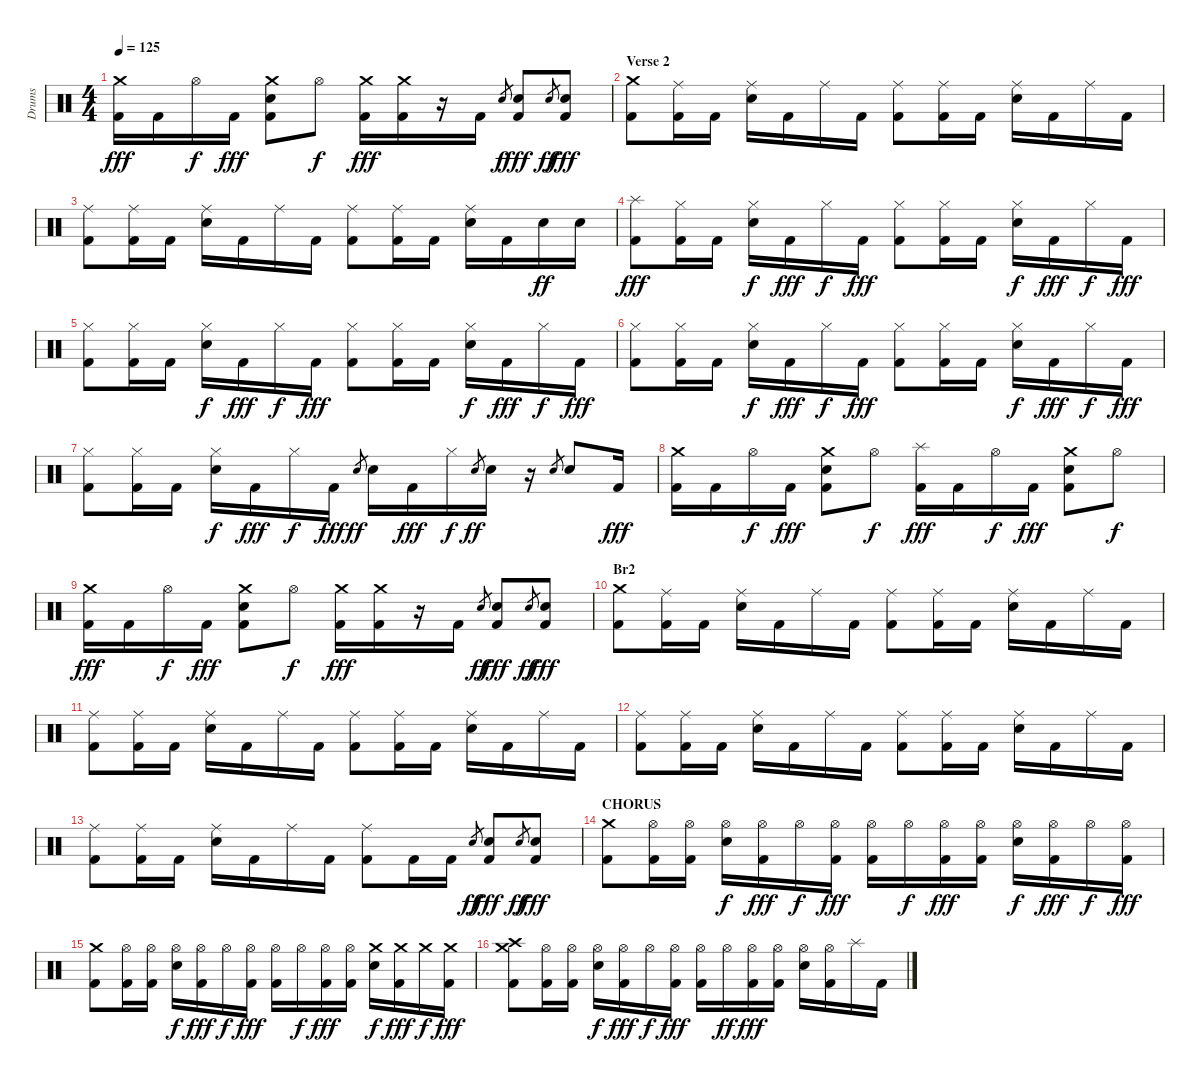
\track ("Drums" "Drums") {instrument percussion}
\staff {score}
\articulation defaults
\ts (4 4)
\tempo 125
\clef neutral
\ks c
("Crash medium (hit)" "Kick (hit) 2").16{dy fff} "Kick (hit) 2".16 "Hi-Hat (open)".16{dy f} "Kick (hit) 2".16{dy fff} ("Crash medium (hit)" "Electric Snare (hit)" "Kick (hit) 2").8 "Hi-Hat (open)".8{dy f} ("Crash medium (hit)" "Kick (hit) 2").16{dy fff} ("Crash medium (hit)" "Kick (hit) 2").16 r.16 "Kick (hit) 2".16 "Electric Snare (hit)".8{gr dy f} ("Electric Snare (hit)" "Kick (hit) 2").8{dy fff} "Electric Snare (hit)".8{gr dy ff} ("Electric Snare (hit)" "Kick (hit) 2").8{dy fff} |
\section ("" "Verse 2")
("Crash medium (hit)" "Kick (hit) 2").8 ("Ride (middle)" "Kick (hit) 2").16 "Kick (hit) 2".16 ("Ride (middle)" "Electric Snare (hit)").16 "Kick (hit) 2".16 "Ride (middle)".16 "Kick (hit) 2".16 ("Ride (middle)" "Kick (hit) 2").8 ("Ride (middle)" "Kick (hit) 2").16 "Kick (hit) 2".16 ("Ride (middle)" "Electric Snare (hit)").16 "Kick (hit) 2".16 "Ride (middle)".16 "Kick (hit) 2".16 |
("Ride (middle)" "Kick (hit) 2").8 ("Ride (middle)" "Kick (hit) 2").16 "Kick (hit) 2".16 ("Ride (middle)" "Electric Snare (hit)").16 "Kick (hit) 2".16 "Ride (middle)".16 "Kick (hit) 2".16 ("Ride (middle)" "Kick (hit) 2").8 ("Ride (middle)" "Kick (hit) 2").16 "Kick (hit) 2".16 ("Ride (middle)" "Electric Snare (hit)").16 "Kick (hit) 2".16 "Electric Snare (hit)".16{dy ff} "Electric Snare (hit)".16 |
("Splash (hit)" "Kick (hit) 2").8{dy fff} ("Hi-Hat (closed)" "Kick (hit) 2").16 "Kick (hit) 2".16 ("Hi-Hat (closed)" "Electric Snare (hit)").16{dy f} "Kick (hit) 2".16{dy fff} "Hi-Hat (closed)".16{dy f} "Kick (hit) 2".16{dy fff} ("Hi-Hat (closed)" "Kick (hit) 2").8 ("Hi-Hat (closed)" "Kick (hit) 2").16 "Kick (hit) 2".16 ("Hi-Hat (closed)" "Electric Snare (hit)").16{dy f} "Kick (hit) 2".16{dy fff} "Hi-Hat (closed)".16{dy f} "Kick (hit) 2".16{dy fff} |
("Hi-Hat (closed)" "Kick (hit) 2").8 ("Hi-Hat (closed)" "Kick (hit) 2").16 "Kick (hit) 2".16 ("Hi-Hat (closed)" "Electric Snare (hit)").16{dy f} "Kick (hit) 2".16{dy fff} "Hi-Hat (closed)".16{dy f} "Kick (hit) 2".16{dy fff} ("Hi-Hat (closed)" "Kick (hit) 2").8 ("Hi-Hat (closed)" "Kick (hit) 2").16 "Kick (hit) 2".16 ("Hi-Hat (closed)" "Electric Snare (hit)").16{dy f} "Kick (hit) 2".16{dy fff} "Hi-Hat (closed)".16{dy f} "Kick (hit) 2".16{dy fff} |
("Hi-Hat (closed)" "Kick (hit) 2").8 ("Hi-Hat (closed)" "Kick (hit) 2").16 "Kick (hit) 2".16 ("Hi-Hat (closed)" "Electric Snare (hit)").16{dy f} "Kick (hit) 2".16{dy fff} "Hi-Hat (closed)".16{dy f} "Kick (hit) 2".16{dy fff} ("Hi-Hat (closed)" "Kick (hit) 2").8 ("Hi-Hat (closed)" "Kick (hit) 2").16 "Kick (hit) 2".16 ("Hi-Hat (closed)" "Electric Snare (hit)").16{dy f} "Kick (hit) 2".16{dy fff} "Hi-Hat (closed)".16{dy f} "Kick (hit) 2".16{dy fff} |
("Hi-Hat (closed)" "Kick (hit) 2").8 ("Hi-Hat (closed)" "Kick (hit) 2").16 "Kick (hit) 2".16 ("Hi-Hat (closed)" "Electric Snare (hit)").16{dy f} "Kick (hit) 2".16{dy fff} "Hi-Hat (closed)".16{dy f} "Kick (hit) 2".16{dy fff} "Electric Snare (hit)".8{gr dy ff} "Electric Snare (hit)".16 "Kick (hit) 2".16{dy fff} "Hi-Hat (closed)".16{dy f} "Electric Snare (hit)".8{gr dy ff} "Electric Snare (hit)".16 r.16 "Electric Snare (hit)".8{gr} "Electric Snare (hit)".8 "Kick (hit) 2".16{dy fff} |
("Crash medium (hit)" "Kick (hit) 2").16 "Kick (hit) 2".16 "Hi-Hat (open)".16{dy f} "Kick (hit) 2".16{dy fff} ("Crash medium (hit)" "Electric Snare (hit)" "Kick (hit) 2").8 "Hi-Hat (open)".8{dy f} ("Splash (hit)" "Kick (hit) 2").16{dy fff} "Kick (hit) 2".16 "Hi-Hat (open)".16{dy f} "Kick (hit) 2".16{dy fff} ("Crash medium (hit)" "Electric Snare (hit)" "Kick (hit) 2").8 "Hi-Hat (open)".8{dy f} |
("Crash medium (hit)" "Kick (hit) 2").16{dy fff} "Kick (hit) 2".16 "Hi-Hat (open)".16{dy f} "Kick (hit) 2".16{dy fff} ("Crash medium (hit)" "Electric Snare (hit)" "Kick (hit) 2").8 "Hi-Hat (open)".8{dy f} ("Crash medium (hit)" "Kick (hit) 2").16{dy fff} ("Crash medium (hit)" "Kick (hit) 2").16 r.16 "Kick (hit) 2".16 "Electric Snare (hit)".8{gr dy ff} ("Electric Snare (hit)" "Kick (hit) 2").8{dy fff} "Electric Snare (hit)".8{gr dy ff} ("Electric Snare (hit)" "Kick (hit) 2").8{dy fff} |
\section ("" "Br2")
("Crash medium (hit)" "Kick (hit) 2").8 ("Ride (middle)" "Kick (hit) 2").16 "Kick (hit) 2".16 ("Ride (middle)" "Electric Snare (hit)").16 "Kick (hit) 2".16 "Ride (middle)".16 "Kick (hit) 2".16 ("Ride (middle)" "Kick (hit) 2").8 ("Ride (middle)" "Kick (hit) 2").16 "Kick (hit) 2".16 ("Ride (middle)" "Electric Snare (hit)").16 "Kick (hit) 2".16 "Ride (middle)".16 "Kick (hit) 2".16 |
("Ride (middle)" "Kick (hit) 2").8 ("Ride (middle)" "Kick (hit) 2").16 "Kick (hit) 2".16 ("Ride (middle)" "Electric Snare (hit)").16 "Kick (hit) 2".16 "Ride (middle)".16 "Kick (hit) 2".16 ("Ride (middle)" "Kick (hit) 2").8 ("Ride (middle)" "Kick (hit) 2").16 "Kick (hit) 2".16 ("Ride (middle)" "Electric Snare (hit)").16 "Kick (hit) 2".16 "Ride (middle)".16 "Kick (hit) 2".16 |
("Ride (middle)" "Kick (hit) 2").8 ("Ride (middle)" "Kick (hit) 2").16 "Kick (hit) 2".16 ("Ride (middle)" "Electric Snare (hit)").16 "Kick (hit) 2".16 "Ride (middle)".16 "Kick (hit) 2".16 ("Ride (middle)" "Kick (hit) 2").8 ("Ride (middle)" "Kick (hit) 2").16 "Kick (hit) 2".16 ("Ride (middle)" "Electric Snare (hit)").16 "Kick (hit) 2".16 "Ride (middle)".16 "Kick (hit) 2".16 |
("Ride (middle)" "Kick (hit) 2").8 ("Ride (middle)" "Kick (hit) 2").16 "Kick (hit) 2".16 ("Ride (middle)" "Electric Snare (hit)").16 "Kick (hit) 2".16 "Ride (middle)".16 "Kick (hit) 2".16 ("Ride (middle)" "Kick (hit) 2").8 "Kick (hit) 2".16 "Kick (hit) 2".16 "Electric Snare (hit)".8{gr dy ff} ("Electric Snare (hit)" "Kick (hit) 2").8{dy fff} "Electric Snare (hit)".8{gr dy ff} ("Electric Snare (hit)" "Kick (hit) 2").8{dy fff} |
\section ("" "CHORUS")
("Crash medium (hit)" "Kick (hit) 2").8 ("Hi-Hat (open)" "Kick (hit) 2").16 ("Hi-Hat (open)" "Kick (hit) 2").16 ("Hi-Hat (open)" "Electric Snare (hit)").16{dy f} ("Hi-Hat (open)" "Kick (hit) 2").16{dy fff} "Hi-Hat (open)".16{dy f} ("Hi-Hat (open)" "Kick (hit) 2").16{dy fff} ("Hi-Hat (open)" "Kick (hit) 2").16 "Hi-Hat (open)".16{dy f} ("Hi-Hat (open)" "Kick (hit) 2").16{dy fff} ("Hi-Hat (open)" "Kick (hit) 2").16 ("Hi-Hat (open)" "Electric Snare (hit)").16{dy f} ("Hi-Hat (open)" "Kick (hit) 2").16{dy fff} "Hi-Hat (open)".16{dy f} ("Hi-Hat (open)" "Kick (hit) 2").16{dy fff} |
("Crash medium (hit)" "Kick (hit) 2").8 ("Hi-Hat (open)" "Kick (hit) 2").16 ("Hi-Hat (open)" "Kick (hit) 2").16 ("Hi-Hat (open)" "Electric Snare (hit)").16{dy f} ("Hi-Hat (open)" "Kick (hit) 2").16{dy fff} "Hi-Hat (open)".16{dy f} ("Hi-Hat (open)" "Kick (hit) 2").16{dy fff} ("Hi-Hat (open)" "Kick (hit) 2").16 "Hi-Hat (open)".16{dy f} ("Hi-Hat (open)" "Kick (hit) 2").16{dy fff} ("Hi-Hat (open)" "Kick (hit) 2").16 ("Crash medium (hit)" "Electric Snare (hit)").16{dy f} ("Crash medium (hit)" "Kick (hit) 2").16{dy fff} "Crash medium (hit)".16{dy f} ("Crash medium (hit)" "Kick (hit) 2").16{dy fff} |
("Crash medium (hit)" "Crash high (hit)" "Kick (hit) 2").8 ("Hi-Hat (open)" "Kick (hit) 2").16 ("Hi-Hat (open)" "Kick (hit) 2").16 ("Hi-Hat (open)" "Electric Snare (hit)").16{dy f} ("Hi-Hat (open)" "Kick (hit) 2").16{dy fff} "Hi-Hat (open)".16{dy f} ("Hi-Hat (open)" "Kick (hit) 2").16{dy fff} ("Hi-Hat (open)" "Kick (hit) 2").16 "Hi-Hat (open)".16{dy ff} ("Hi-Hat (open)" "Kick (hit) 2").16{dy fff} ("Hi-Hat (open)" "Kick (hit) 2").16 ("Hi-Hat (open)" "Electric Snare (hit)").16 ("Hi-Hat (open)" "Kick (hit) 2").16 "Splash (hit)".16 "Kick (hit) 2".16
